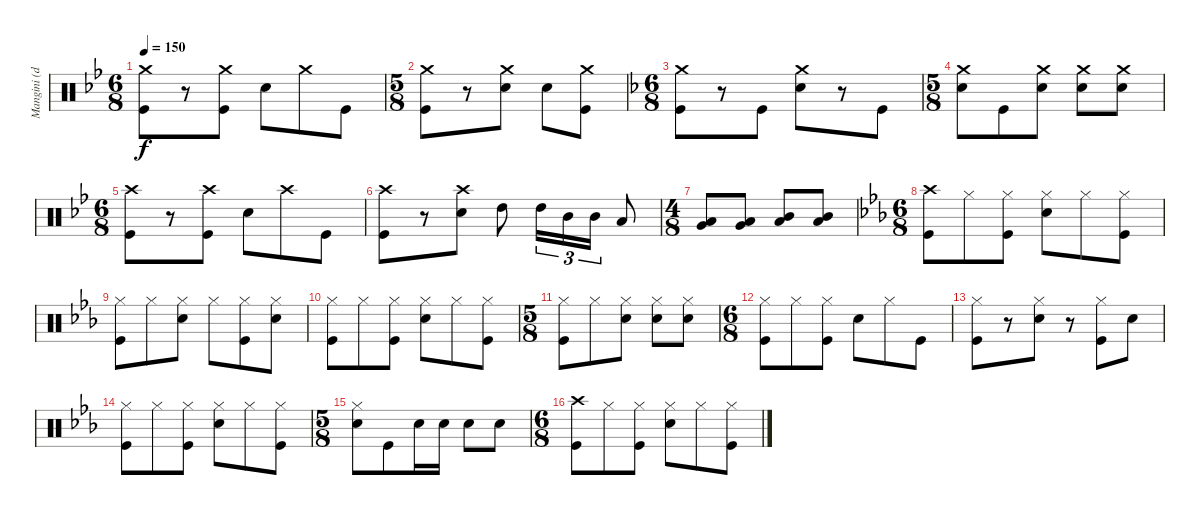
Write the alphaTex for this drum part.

\track ("Mangini (drums)" "Mangini (d") {instrument percussion}
\staff {score}
\articulation defaults
\ts (6 8)
\tempo 150
\clef neutral
\ks gminor
("Crash medium (hit)" "Kick (hit)").8{dy f} r.8 ("Crash medium (hit)" "Kick (hit)").8 "Snare (hit) 2".8 "Crash medium (hit)".8 "Kick (hit)".8 |
\ts (5 8)
("Crash medium (hit)" "Kick (hit)").8 r.8 ("Crash medium (hit)" "Snare (hit) 2").8 "Snare (hit) 2".8 ("Crash medium (hit)" "Kick (hit)").8 |
\ts (6 8)
\ks f
("Crash medium (hit)" "Kick (hit)").8 r.8 "Kick (hit)".8 ("Crash medium (hit)" "Snare (hit) 2").8 r.8 "Kick (hit)".8 |
\ts (5 8)
("Crash medium (hit)" "Snare (hit) 2").8 "Kick (hit)".8 ("Crash medium (hit)" "Snare (hit) 2").8 ("Crash medium (hit)" "Snare (hit) 2").8 ("Crash medium (hit)" "Snare (hit) 2").8 |
\ts (6 8)
\ks gminor
("Crash high (hit)" "Kick (hit)").8 r.8 ("Crash high (hit)" "Kick (hit)").8 "Snare (hit) 2".8 "Crash high (hit)".8 "Kick (hit)".8 |
("Crash high (hit)" "Kick (hit)").8 r.8 ("Crash high (hit)" "Snare (hit) 2").8 "High Tom (hit)".8 "High Tom (hit)".16{tu (3 2)} "Mid Tom (hit)".16{tu (3 2)} "Mid Tom (hit)".16{tu (3 2)} "Low Tom (hit)".8 |
\ts (4 8)
("Low Tom (hit)" "Very Low Tom (hit)").8 ("Low Tom (hit)" "Very Low Tom (hit)").8 ("Mid Tom (hit)" "Low Floor Tom (hit)").8 ("Mid Tom (hit)" "Low Floor Tom (hit)").8 |
\ts (6 8)
\ks cminor
("Crash high (hit)" "Kick (hit)").8 "Hi-Hat (closed)".8 ("Hi-Hat (closed)" "Kick (hit)").8 ("Hi-Hat (closed)" "Snare (hit) 2").8 "Hi-Hat (closed)".8 ("Hi-Hat (closed)" "Kick (hit)").8 |
("Hi-Hat (closed)" "Kick (hit)").8 "Hi-Hat (closed)".8 ("Hi-Hat (closed)" "Snare (hit) 2").8 "Hi-Hat (closed)".8 ("Hi-Hat (closed)" "Kick (hit)").8 ("Hi-Hat (closed)" "Snare (hit) 2").8 |
("Hi-Hat (closed)" "Kick (hit)").8 "Hi-Hat (closed)".8 ("Hi-Hat (closed)" "Kick (hit)").8 ("Hi-Hat (closed)" "Snare (hit) 2").8 "Hi-Hat (closed)".8 ("Hi-Hat (closed)" "Kick (hit)").8 |
\ts (5 8)
("Hi-Hat (closed)" "Kick (hit)").8 "Hi-Hat (closed)".8 ("Hi-Hat (closed)" "Snare (hit) 2").8 ("Hi-Hat (closed)" "Snare (hit) 2").8 ("Hi-Hat (closed)" "Snare (hit) 2").8 |
\ts (6 8)
("Hi-Hat (closed)" "Kick (hit)").8 "Hi-Hat (closed)".8 ("Hi-Hat (closed)" "Kick (hit)").8 "Snare (hit) 2".8 "Hi-Hat (closed)".8 "Kick (hit)".8 |
("Hi-Hat (closed)" "Kick (hit)").8 r.8 ("Hi-Hat (closed)" "Snare (hit) 2").8 r.8 ("Hi-Hat (closed)" "Kick (hit)").8 "Snare (hit) 2".8 |
("Hi-Hat (closed)" "Kick (hit)").8 "Hi-Hat (closed)".8 ("Hi-Hat (closed)" "Kick (hit)").8 ("Hi-Hat (closed)" "Snare (hit) 2").8 "Hi-Hat (closed)".8 ("Hi-Hat (closed)" "Kick (hit)").8 |
\ts (5 8)
("Hi-Hat (closed)" "Snare (hit) 2").8 "Kick (hit)".8 "Snare (hit) 2".16 "Snare (hit) 2".16 "Snare (hit) 2".8 "Snare (hit) 2".8 |
\ts (6 8)
("Crash high (hit)" "Kick (hit)").8 "Hi-Hat (closed)".8 ("Hi-Hat (closed)" "Kick (hit)").8 ("Hi-Hat (closed)" "Snare (hit) 2").8 "Hi-Hat (closed)".8 ("Hi-Hat (closed)" "Kick (hit)").8
